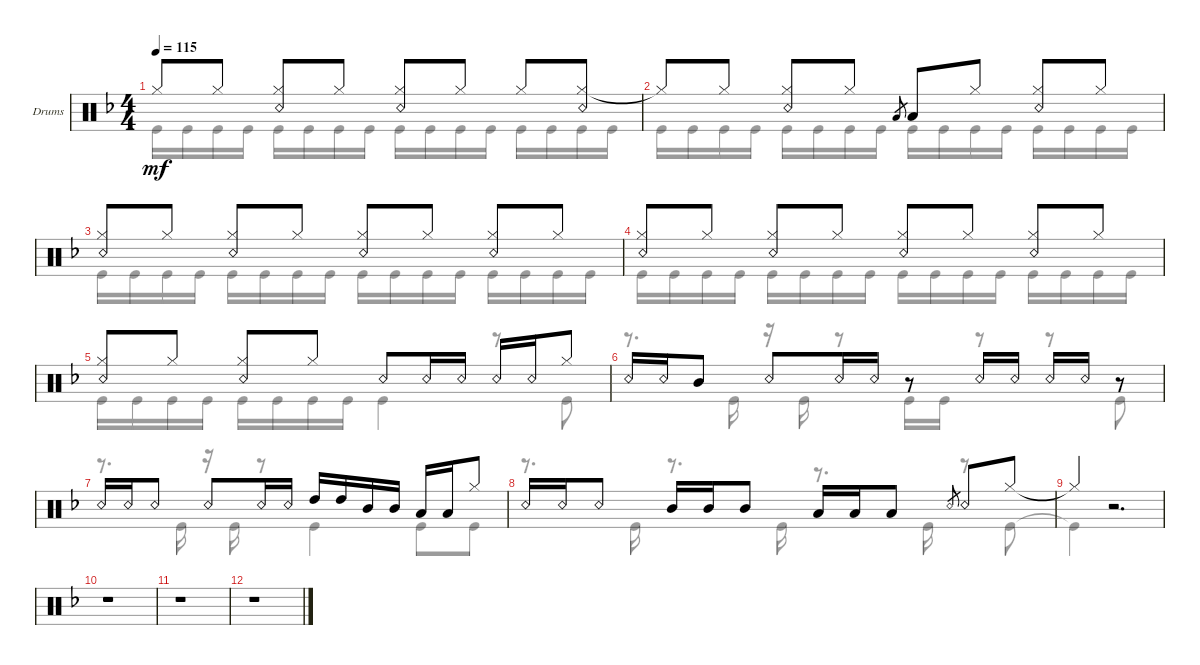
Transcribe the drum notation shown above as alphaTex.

\defaultSystemsLayout 4
\bracketExtendMode groupsimilarinstruments
\firstSystemTrackNameOrientation horizontal
\otherSystemsTrackNameOrientation horizontal
\track ("Randy Castillo" "Drums") {instrument percussion}
\staff {score}
\articulation defaults
\voice
\ts (4 4)
\tempo 115
\clef neutral
\ks f "Hi-Hat (closed)".8{dy mf} "Hi-Hat (closed)".8
("Hi-Hat (closed)" "Snare (rim shot)").8 "Hi-Hat (closed)".8 ("Hi-Hat (closed)" "Snare (rim shot)").8 "Hi-Hat (closed)".8 "Hi-Hat (closed)".8 ("Hi-Hat (closed)" "Snare (rim shot)").8 |
"Hi-Hat (closed)"{t}.8 "Hi-Hat (closed)".8 ("Hi-Hat (closed)" "Snare (rim shot)").8 "Hi-Hat (closed)".8 "Low Tom (hit)".8{gr} "Low Tom (hit)".8 "Hi-Hat (closed)".8 ("Hi-Hat (closed)" "Snare (rim shot)").8 "Hi-Hat (closed)".8 |
("Hi-Hat (closed)" "Snare (rim shot)").8 "Hi-Hat (closed)".8 ("Hi-Hat (closed)" "Snare (rim shot)").8 "Hi-Hat (closed)".8 ("Hi-Hat (closed)" "Snare (rim shot)").8 "Hi-Hat (closed)".8 ("Hi-Hat (closed)" "Snare (rim shot)").8 "Hi-Hat (closed)".8 |
("Hi-Hat (closed)" "Snare (rim shot)").8 "Hi-Hat (closed)".8 ("Hi-Hat (closed)" "Snare (rim shot)").8 "Hi-Hat (closed)".8 ("Hi-Hat (closed)" "Snare (rim shot)").8 "Hi-Hat (closed)".8 ("Hi-Hat (closed)" "Snare (rim shot)").8 "Hi-Hat (closed)".8 |
("Hi-Hat (closed)" "Snare (rim shot)").8 "Hi-Hat (closed)".8 ("Hi-Hat (closed)" "Snare (rim shot)").8 "Hi-Hat (closed)".8 "Snare (rim shot)".8 "Snare (rim shot)".16 "Snare (rim shot)".16 "Snare (rim shot)".16 "Snare (rim shot)".16 "Hi-Hat (closed)".8 |
"Snare (rim shot)".16 "Snare (rim shot)".16 "Mid Tom (hit)".8 "Snare (rim shot)".8 "Snare (rim shot)".16 "Snare (rim shot)".16 r.8 "Snare (rim shot)".16 "Snare (rim shot)".16 "Snare (rim shot)".16 "Snare (rim shot)".16 r.8 |
"Snare (rim shot)".16 "Snare (rim shot)".16 "Snare (rim shot)".8 "Snare (rim shot)".8 "Snare (rim shot)".16 "Snare (rim shot)".16 "High Tom (hit)".16 "High Tom (hit)".16 "Mid Tom (hit)".16 "Mid Tom (hit)".16 "Low Tom (hit)".16 "Low Tom (hit)".16 "Hi-Hat (closed)".8 |
"Snare (rim shot)".16 "Snare (rim shot)".16 "Snare (rim shot)".8 "Mid Tom (hit)".16 "Mid Tom (hit)".16 "Mid Tom (hit)".8 "Low Tom (hit)".16 "Low Tom (hit)".16 "Low Tom (hit)".8 "Snare (rim shot)".8{gr} "Snare (rim shot)".8 "Hi-Hat (closed)".8 |
"Hi-Hat (closed)"{t}.4 r.2{d} |
r.1 |
r.1 |
r.1
\voice
\clef neutral
\ottava regular
\simile none
\ks f "Kick (hit)".16{dy mf} "Kick (hit)".16 "Kick (hit)".16 "Kick (hit)".16 "Kick (hit)".16 "Kick (hit)".16 "Kick (hit)".16 "Kick (hit)".16 "Kick (hit)".16 "Kick (hit)".16 "Kick (hit)".16 "Kick (hit)".16 "Kick (hit)".16 "Kick (hit)".16 "Kick (hit)".16 "Kick (hit)".16
|
"Kick (hit)".16 "Kick (hit)".16 "Kick (hit)".16 "Kick (hit)".16 "Kick (hit)".16 "Kick (hit)".16 "Kick (hit)".16 "Kick (hit)".16 "Kick (hit)".16 "Kick (hit)".16 "Kick (hit)".16 "Kick (hit)".16 "Kick (hit)".16 "Kick (hit)".16 "Kick (hit)".16 "Kick (hit)".16 |
"Kick (hit)".16 "Kick (hit)".16 "Kick (hit)".16 "Kick (hit)".16 "Kick (hit)".16 "Kick (hit)".16 "Kick (hit)".16 "Kick (hit)".16 "Kick (hit)".16 "Kick (hit)".16 "Kick (hit)".16 "Kick (hit)".16 "Kick (hit)".16 "Kick (hit)".16 "Kick (hit)".16 "Kick (hit)".16 |
"Kick (hit)".16 "Kick (hit)".16 "Kick (hit)".16 "Kick (hit)".16 "Kick (hit)".16 "Kick (hit)".16 "Kick (hit)".16 "Kick (hit)".16 "Kick (hit)".16 "Kick (hit)".16 "Kick (hit)".16 "Kick (hit)".16 "Kick (hit)".16 "Kick (hit)".16 "Kick (hit)".16 "Kick (hit)".16 |
"Kick (hit)".16 "Kick (hit)".16 "Kick (hit)".16 "Kick (hit)".16 "Kick (hit)".16 "Kick (hit)".16 "Kick (hit)".16 "Kick (hit)".16 "Kick (hit)".4 r.8 "Kick (hit)".8 |
r.8{d} "Kick (hit)".16 r.16 "Kick (hit)".16 r.8 "Kick (hit)".16 "Kick (hit)".16 r.8 r.8 "Kick (hit)".8 |
r.8{d} "Kick (hit)".16 r.16 "Kick (hit)".16 r.8 "Kick (hit)".4 "Kick (hit)".8 "Kick (hit)".8 |
r.8{d} "Kick (hit)".16 r.8{d} "Kick (hit)".16 r.8{d} "Kick (hit)".16 r.8 "Kick (hit)".8 |
"Kick (hit)"{t}.4 |
|
|
